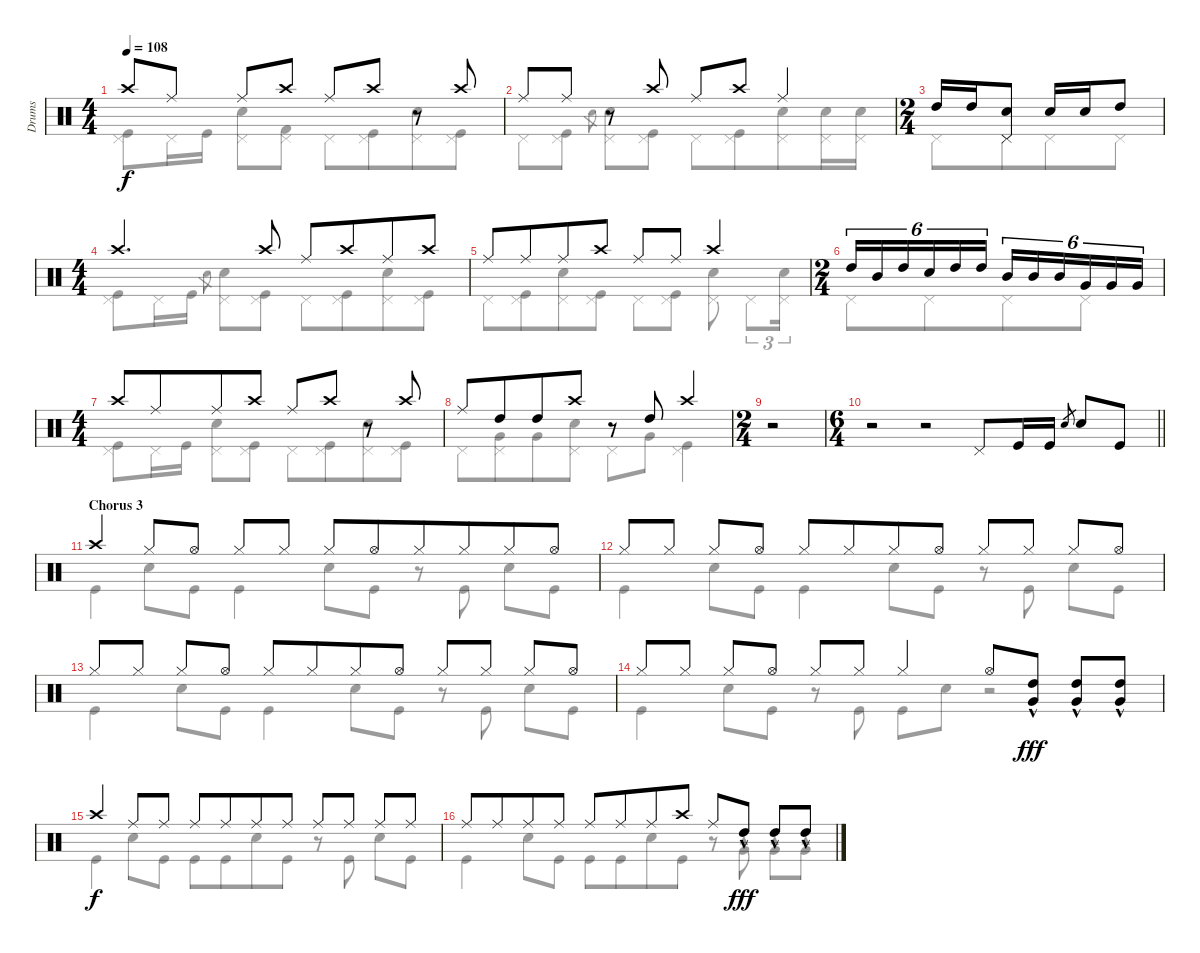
\track ("Drums" "Drums") {instrument percussion}
\staff {score}
\articulation defaults
\voice
\ts (4 4)
\tempo 108
\clef neutral
\ks c "Crash high (hit)".8{dy f beam Up} "Ride (middle)".8{beam Up} "Ride (middle)".8{beam Up} "Crash high (hit)".8{beam Up beam split} "Ride (middle)".8{beam Up} "Crash high (hit)".8{beam Up}
r.8 "Crash high (hit)".8{beam Up} |
"Ride (middle)".8{beam Up} "Ride (middle)".8{beam Up} r.8 "Crash high (hit)".8{beam Up} "Ride (middle)".8{beam Up} "Crash high (hit)".8{beam Up} "Ride (middle)".4{beam Up} |
\ts (2 4)
"High Tom (hit)".16{beam Up} "High Tom (hit)".16{beam Up} ("Snare (hit) 2" "Pedal Hi-Hat (hit)").8{beam Up} "Snare (hit) 2".16{beam Up} "Snare (hit) 2".16{beam Up} "High Tom (hit)".8{beam Up} |
\ts (4 4)
"Crash high (hit)".4{d beam Up} "Crash high (hit)".8{beam Up beam split} "Ride (middle)".8{beam Up} "Crash high (hit)".8{beam Up beam merge} "Ride (middle)".8{beam Up} "Crash high (hit)".8{beam Up} |
"Ride (middle)".8{beam Up} "Ride (middle)".8{beam Up beam merge} "Ride (middle)".8{beam Up} "Crash high (hit)".8{beam Up} "Ride (middle)".8{beam Up} "Ride (middle)".8{beam Up} "Crash high (hit)".4{beam Up} |
\ts (2 4)
"High Tom (hit)".16{tu (6 4) beam Up} "Mid Tom (hit)".16{tu (6 4) beam Up} "High Tom (hit)".16{tu (6 4) beam Up} "Snare (hit) 2".16{tu (6 4) beam Up beam merge} "High Tom (hit)".16{tu (6 4) beam Up} "High Tom (hit)".16{tu (6 4) beam Up} "Mid Tom (hit)".16{tu (6 4) beam Up} "Mid Tom (hit)".16{tu (6 4) beam Up} "Mid Tom (hit)".16{tu (6 4) beam Up} "Very Low Tom (hit)".16{tu (6 4) beam Up} "Very Low Tom (hit)".16{tu (6 4) beam Up} "Very Low Tom (hit)".16{tu (6 4) beam Up} |
\ts (4 4)
"Crash high (hit)".8{beam Up} "Ride (middle)".8{beam Up beam merge} "Ride (middle)".8{beam Up} "Crash high (hit)".8{beam Up} "Ride (middle)".8{beam Up} "Crash high (hit)".8{beam Up} r.8 "Crash high (hit)".8{beam Up} |
"Ride (middle)".8 "High Tom (hit)".8{beam merge} "High Tom (hit)".8 "Crash high (hit)".8 r.8 "High Tom (hit)".8 "Crash high (hit)".4 |
\ts (2 4)
r.2 |
\ts (6 4)
\barLineRight lightlight
r.2 r.2 "Pedal Hi-Hat (hit)".8 "Kick (hit)".16 "Kick (hit)".16 "Snare (hit) 2".8{gr} "Snare (hit) 2".8 "Kick (hit)".8 |
\section ("" "Chorus 3")
"Crash high (hit)".4{beam Up} "Hi-Hat (closed)".8{beam Up} "Hi-Hat (open)".8{beam Up} "Hi-Hat (closed)".8{beam Up} "Hi-Hat (closed)".8{beam Up} "Hi-Hat (closed)".8{beam Up beam merge} "Hi-Hat (open)".8{beam Up beam merge} "Hi-Hat (closed)".8{beam Up beam merge} "Hi-Hat (closed)".8{beam Up beam merge} "Hi-Hat (closed)".8{beam Up beam merge} "Hi-Hat (open)".8{beam Up} |
"Hi-Hat (closed)".8 "Hi-Hat (closed)".8 "Hi-Hat (closed)".8 "Hi-Hat (open)".8{beam split} "Hi-Hat (closed)".8 "Hi-Hat (closed)".8{beam merge} "Hi-Hat (closed)".8 "Hi-Hat (open)".8{beam split} "Hi-Hat (closed)".8 "Hi-Hat (closed)".8 "Hi-Hat (closed)".8 "Hi-Hat (open)".8 |
"Hi-Hat (closed)".8{beam Up} "Hi-Hat (closed)".8{beam Up} "Hi-Hat (closed)".8{beam Up} "Hi-Hat (open)".8{beam Up beam split} "Hi-Hat (closed)".8{beam Up} "Hi-Hat (closed)".8{beam Up beam merge} "Hi-Hat (closed)".8{beam Up} "Hi-Hat (open)".8{beam Up beam split} "Hi-Hat (closed)".8{beam Up} "Hi-Hat (closed)".8{beam Up} "Hi-Hat (closed)".8{beam Up} "Hi-Hat (open)".8{beam Up} |
"Hi-Hat (closed)".8{beam Up} "Hi-Hat (closed)".8{beam Up} "Hi-Hat (closed)".8{beam Up} "Hi-Hat (open)".8{beam Up beam split} "Hi-Hat (closed)".8{beam Up} "Hi-Hat (closed)".8{beam Up} "Hi-Hat (closed)".4{beam Up} "Hi-Hat (open)".8{beam Up} ("High Tom (hit)"{hac} "Very Low Tom (hit)"{hac}).8{dy fff beam Up} ("High Tom (hit)"{hac} "Very Low Tom (hit)"{hac}).8{beam Up} ("High Tom (hit)"{hac} "Very Low Tom (hit)"{hac}).8{beam Up} |
"Crash high (hit)".4{dy f beam Up} "Ride (middle)".8{beam Up} "Ride (middle)".8{beam Up beam split} "Ride (middle)".8{beam Up} "Ride (middle)".8{beam Up beam merge} "Ride (middle)".8{beam Up} "Ride (middle)".8{beam Up beam split} "Ride (middle)".8{beam Up} "Ride (middle)".8{beam Up} "Ride (middle)".8{beam Up} "Ride (middle)".8{beam Up} |
"Ride (middle)".8{beam Up} "Ride (middle)".8{beam Up beam merge} "Ride (middle)".8{beam Up} "Ride (middle)".8{beam Up beam split} "Ride (middle)".8{beam Up} "Ride (middle)".8{beam Up beam merge} "Ride (middle)".8{beam Up} "Crash high (hit)".8{beam Up beam split} "Ride (middle)".8{beam Up} "High Tom (hit)"{hac}.8{dy fff beam Up} "High Tom (hit)"{hac}.8{beam Up} "High Tom (hit)"{hac}.8{beam Up}
\voice
\clef neutral
\ottava regular
\simile none
\ks c
("Kick (hit)" "Pedal Hi-Hat (hit)").8{dy f} "Pedal Hi-Hat (hit)".16 "Kick (hit)".16{beam split} ("Snare (hit) 2" "Pedal Hi-Hat (hit)").8 ("Kick (hit) 2" "Pedal Hi-Hat (hit)").8{beam split} "Pedal Hi-Hat (hit)".8 ("Kick (hit)" "Pedal Hi-Hat (hit)").8{beam merge} ("Snare (hit) 2" "Pedal Hi-Hat (hit)").8 ("Kick (hit)" "Pedal Hi-Hat (hit)").8 |
"Pedal Hi-Hat (hit)".8 ("Kick (hit)" "Pedal Hi-Hat (hit)").8 "Snare (hit) 2".8{gr} ("Snare (hit) 2" "Pedal Hi-Hat (hit)").8 ("Kick (hit)" "Pedal Hi-Hat (hit)").8 "Pedal Hi-Hat (hit)".8 ("Kick (hit)" "Pedal Hi-Hat (hit)").8{beam merge} ("Snare (hit) 2" "Pedal Hi-Hat (hit)").8 ("Snare (hit) 2" "Pedal Hi-Hat (hit)").16 ("Snare (hit) 2" "Pedal Hi-Hat (hit)").16 |
"Pedal Hi-Hat (hit)".8 "Pedal Hi-Hat (hit)".8{beam merge} "Pedal Hi-Hat (hit)".8 "Pedal Hi-Hat (hit)".8 |
("Kick (hit)" "Pedal Hi-Hat (hit)").8 "Pedal Hi-Hat (hit)".16 "Kick (hit)".16 "Snare (hit) 2".8{gr beam split} ("Snare (hit) 2" "Pedal Hi-Hat (hit)").8 ("Kick (hit)" "Pedal Hi-Hat (hit)").8{beam split} "Pedal Hi-Hat (hit)".8 ("Kick (hit)" "Pedal Hi-Hat (hit)").8{beam merge} ("Snare (hit) 2" "Pedal Hi-Hat (hit)").8 ("Kick (hit)" "Pedal Hi-Hat (hit)").8 |
"Pedal Hi-Hat (hit)".8 ("Kick (hit)" "Pedal Hi-Hat (hit)").8{beam merge} ("Snare (hit) 2" "Pedal Hi-Hat (hit)").8 ("Kick (hit)" "Pedal Hi-Hat (hit)").8 "Pedal Hi-Hat (hit)".8 ("Kick (hit)" "Pedal Hi-Hat (hit)").8 ("Snare (hit) 2" "Pedal Hi-Hat (hit)").8 "Pedal Hi-Hat (hit)".8{tu (3 2) beam merge} ("Snare (hit) 2" "Pedal Hi-Hat (hit)").16{tu (3 2)} |
"Pedal Hi-Hat (hit)".8{beam merge} "Pedal Hi-Hat (hit)".8{beam merge} "Pedal Hi-Hat (hit)".8{beam merge} "Pedal Hi-Hat (hit)".8 |
("Kick (hit)" "Pedal Hi-Hat (hit)").8 "Pedal Hi-Hat (hit)".16 "Kick (hit)".16 ("Snare (hit) 2" "Pedal Hi-Hat (hit)").8 ("Kick (hit)" "Pedal Hi-Hat (hit)").8 "Pedal Hi-Hat (hit)".8 ("Kick (hit)" "Pedal Hi-Hat (hit)").8{beam merge} ("Snare (hit) 2" "Pedal Hi-Hat (hit)").8 ("Kick (hit)" "Pedal Hi-Hat (hit)").8 |
"Pedal Hi-Hat (hit)".8 ("Very Low Tom (hit)" "Pedal Hi-Hat (hit)").8{beam merge} "Very Low Tom (hit)".8 ("Snare (hit) 2" "Pedal Hi-Hat (hit)").8 "Pedal Hi-Hat (hit)".8 "Very Low Tom (hit)".8 ("Kick (hit)" "Pedal Hi-Hat (hit)").4 |
|
\barLineRight lightlight
|
"Kick (hit)".4 "Snare (hit) 2".8 "Kick (hit)".8 "Kick (hit)".4 "Snare (hit) 2".8 "Kick (hit)".8 r.8 "Kick (hit)".8 "Snare (hit) 2".8 "Kick (hit)".8 |
"Kick (hit)".4 "Snare (hit) 2".8 "Kick (hit)".8 "Kick (hit)".4 "Snare (hit) 2".8 "Kick (hit)".8 r.8 "Kick (hit)".8 "Snare (hit) 2".8 "Kick (hit)".8 |
"Kick (hit)".4 "Snare (hit) 2".8 "Kick (hit)".8 "Kick (hit)".4 "Snare (hit) 2".8 "Kick (hit)".8 r.8 "Kick (hit)".8 "Snare (hit) 2".8 "Kick (hit)".8 |
"Kick (hit)".4 "Snare (hit) 2".8 "Kick (hit)".8 r.8 "Kick (hit)".8 "Kick (hit)".8 "Snare (hit) 2".8 r.2 |
"Kick (hit)".4 "Snare (hit) 2".8{beam Down} "Kick (hit)".8{beam Down beam split} "Kick (hit)".8{beam Down} "Kick (hit)".8{beam Down beam merge} "Snare (hit) 2".8 "Kick (hit)".8 r.8 "Kick (hit)".8 "Snare (hit) 2".8 "Kick (hit)".8 |
"Kick (hit)".4 "Snare (hit) 2".8 "Kick (hit)".8{beam split} "Kick (hit)".8{beam Down} "Kick (hit)".8{beam Down beam merge} "Snare (hit) 2".8 "Kick (hit)".8 r.8 "Very Low Tom (hit)"{hac}.8{dy fff} "Very Low Tom (hit)"{hac}.8 "Very Low Tom (hit)"{hac}.8
